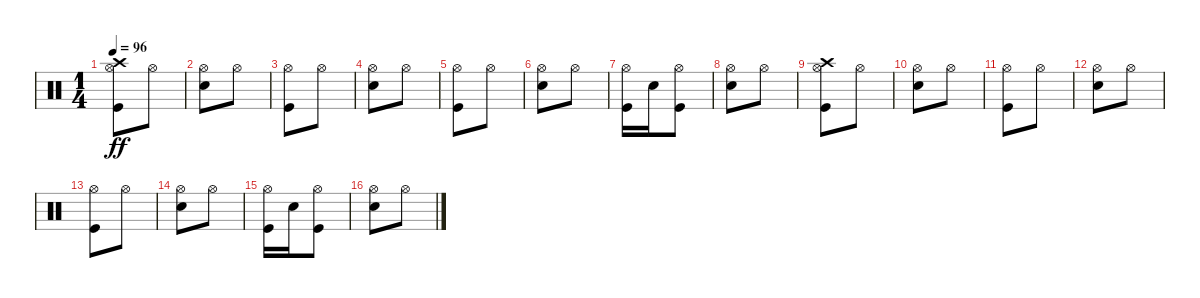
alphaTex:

\track "" {instrument percussion}
\staff {score}
\articulation defaults
\ts (1 4)
\tempo 96
\clef neutral
\ks c
("Kick (hit)" "Hi-Hat (open)" "Crash high (hit)").8{dy ff} "Hi-Hat (open)".8 |
("Snare (hit) 2" "Hi-Hat (open)").8 "Hi-Hat (open)".8 |
("Kick (hit)" "Hi-Hat (open)").8 "Hi-Hat (open)".8 |
("Snare (hit) 2" "Hi-Hat (open)").8 "Hi-Hat (open)".8 |
("Kick (hit)" "Hi-Hat (open)").8 "Hi-Hat (open)".8 |
("Snare (hit) 2" "Hi-Hat (open)").8 "Hi-Hat (open)".8 |
("Kick (hit)" "Hi-Hat (open)").16 "Snare (hit) 2".16 ("Kick (hit)" "Hi-Hat (open)").8 |
("Snare (hit) 2" "Hi-Hat (open)").8 "Hi-Hat (open)".8 |
("Kick (hit)" "Hi-Hat (open)" "Crash high (hit)").8 "Hi-Hat (open)".8 |
("Snare (hit) 2" "Hi-Hat (open)").8 "Hi-Hat (open)".8 |
("Kick (hit)" "Hi-Hat (open)").8 "Hi-Hat (open)".8 |
("Snare (hit) 2" "Hi-Hat (open)").8 "Hi-Hat (open)".8 |
("Kick (hit)" "Hi-Hat (open)").8 "Hi-Hat (open)".8 |
("Snare (hit) 2" "Hi-Hat (open)").8 "Hi-Hat (open)".8 |
("Kick (hit)" "Hi-Hat (open)").16 "Snare (hit) 2".16 ("Kick (hit)" "Hi-Hat (open)").8 |
("Snare (hit) 2" "Hi-Hat (open)").8 "Hi-Hat (open)".8
